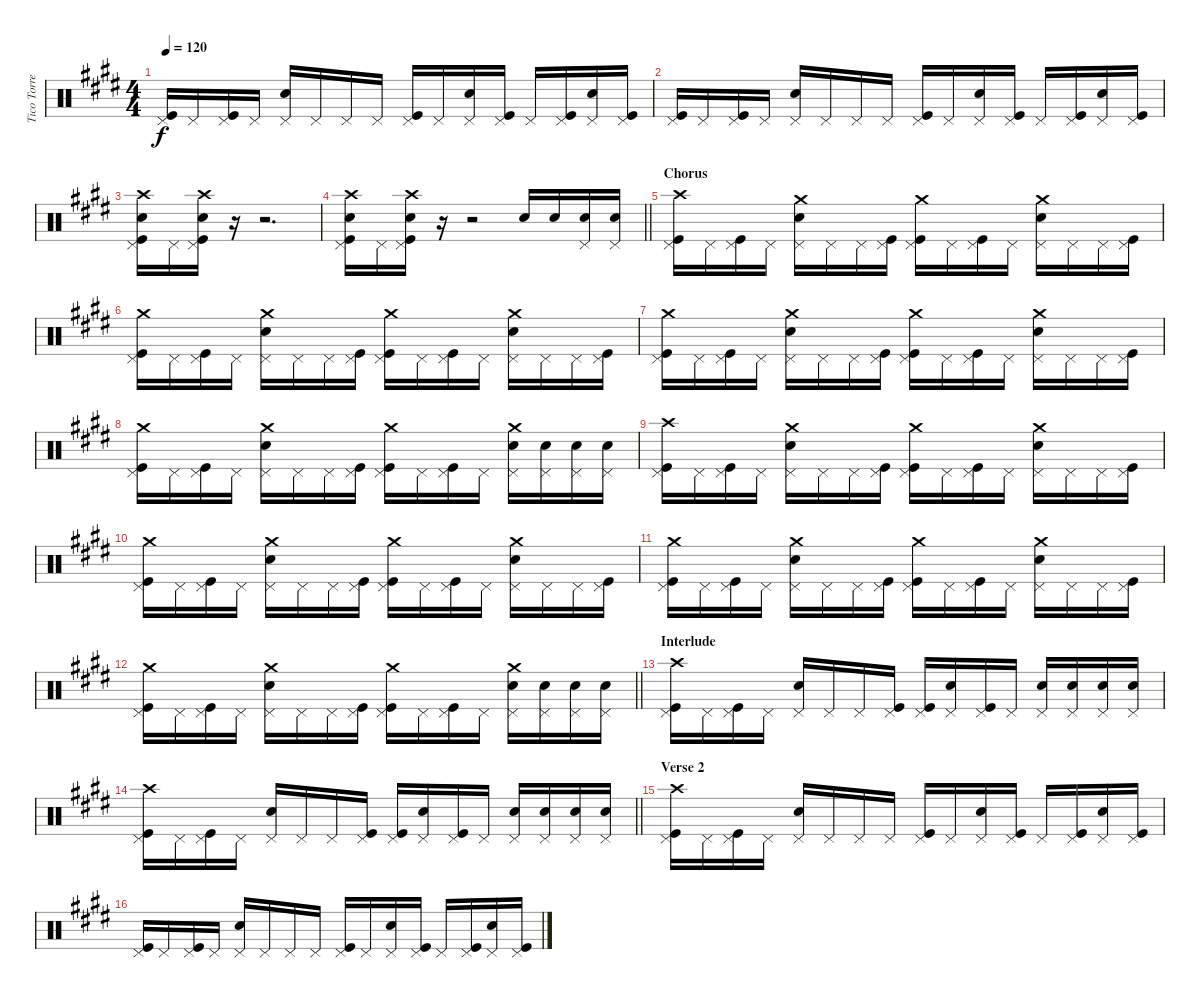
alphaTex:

\track ("Tico Torres (Drums)" "Tico Torre") {instrument percussion}
\staff {score}
\articulation defaults
\ts (4 4)
\tempo 120
\clef neutral
\ks c#minor
("Pedal Hi-Hat (hit)" "Kick (hit)").16{dy f} "Pedal Hi-Hat (hit)".16 ("Pedal Hi-Hat (hit)" "Kick (hit)").16 "Pedal Hi-Hat (hit)".16 ("Electric Snare (hit)" "Pedal Hi-Hat (hit)").16 "Pedal Hi-Hat (hit)".16 "Pedal Hi-Hat (hit)".16 "Pedal Hi-Hat (hit)".16 ("Pedal Hi-Hat (hit)" "Kick (hit)").16 "Pedal Hi-Hat (hit)".16 ("Electric Snare (hit)" "Pedal Hi-Hat (hit)").16 ("Pedal Hi-Hat (hit)" "Kick (hit)").16 "Pedal Hi-Hat (hit)".16 ("Pedal Hi-Hat (hit)" "Kick (hit)").16 ("Electric Snare (hit)" "Pedal Hi-Hat (hit)").16 ("Pedal Hi-Hat (hit)" "Kick (hit)").16 |
("Pedal Hi-Hat (hit)" "Kick (hit)").16 "Pedal Hi-Hat (hit)".16 ("Pedal Hi-Hat (hit)" "Kick (hit)").16 "Pedal Hi-Hat (hit)".16 ("Electric Snare (hit)" "Pedal Hi-Hat (hit)").16 "Pedal Hi-Hat (hit)".16 "Pedal Hi-Hat (hit)".16 "Pedal Hi-Hat (hit)".16 ("Pedal Hi-Hat (hit)" "Kick (hit)").16 "Pedal Hi-Hat (hit)".16 ("Electric Snare (hit)" "Pedal Hi-Hat (hit)").16 ("Pedal Hi-Hat (hit)" "Kick (hit)").16 "Pedal Hi-Hat (hit)".16 ("Pedal Hi-Hat (hit)" "Kick (hit)").16 ("Electric Snare (hit)" "Pedal Hi-Hat (hit)").16 ("Pedal Hi-Hat (hit)" "Kick (hit)").16 |
("Crash high (hit)" "Electric Snare (hit)" "Pedal Hi-Hat (hit)" "Kick (hit)").16 "Pedal Hi-Hat (hit)".16 ("Crash high (hit)" "Electric Snare (hit)" "Pedal Hi-Hat (hit)" "Kick (hit)").16 r.16 r.2{d} |
\barLineRight lightlight
("Crash high (hit)" "Electric Snare (hit)" "Pedal Hi-Hat (hit)" "Kick (hit)").16 "Pedal Hi-Hat (hit)".16 ("Crash high (hit)" "Electric Snare (hit)" "Pedal Hi-Hat (hit)" "Kick (hit)").16 r.16 r.2 "Electric Snare (hit)".16 "Electric Snare (hit)".16 ("Electric Snare (hit)" "Pedal Hi-Hat (hit)").16 ("Electric Snare (hit)" "Pedal Hi-Hat (hit)").16 |
\section ("" "Chorus")
("Crash high (hit)" "Pedal Hi-Hat (hit)" "Kick (hit)").16 "Pedal Hi-Hat (hit)".16 ("Pedal Hi-Hat (hit)" "Kick (hit)").16 "Pedal Hi-Hat (hit)".16 ("Crash medium (hit)" "Electric Snare (hit)" "Pedal Hi-Hat (hit)").16 "Pedal Hi-Hat (hit)".16 "Pedal Hi-Hat (hit)".16 ("Pedal Hi-Hat (hit)" "Kick (hit)").16 ("Crash medium (hit)" "Pedal Hi-Hat (hit)" "Kick (hit)").16 "Pedal Hi-Hat (hit)".16 ("Pedal Hi-Hat (hit)" "Kick (hit)").16 "Pedal Hi-Hat (hit)".16 ("Crash medium (hit)" "Electric Snare (hit)" "Pedal Hi-Hat (hit)").16 "Pedal Hi-Hat (hit)".16 "Pedal Hi-Hat (hit)".16 ("Pedal Hi-Hat (hit)" "Kick (hit)").16 |
("Crash medium (hit)" "Pedal Hi-Hat (hit)" "Kick (hit)").16 "Pedal Hi-Hat (hit)".16 ("Pedal Hi-Hat (hit)" "Kick (hit)").16 "Pedal Hi-Hat (hit)".16 ("Crash medium (hit)" "Electric Snare (hit)" "Pedal Hi-Hat (hit)").16 "Pedal Hi-Hat (hit)".16 "Pedal Hi-Hat (hit)".16 ("Pedal Hi-Hat (hit)" "Kick (hit)").16 ("Crash medium (hit)" "Pedal Hi-Hat (hit)" "Kick (hit)").16 "Pedal Hi-Hat (hit)".16 ("Pedal Hi-Hat (hit)" "Kick (hit)").16 "Pedal Hi-Hat (hit)".16 ("Crash medium (hit)" "Electric Snare (hit)" "Pedal Hi-Hat (hit)").16 "Pedal Hi-Hat (hit)".16 "Pedal Hi-Hat (hit)".16 ("Pedal Hi-Hat (hit)" "Kick (hit)").16 |
("Crash medium (hit)" "Pedal Hi-Hat (hit)" "Kick (hit)").16 "Pedal Hi-Hat (hit)".16 ("Pedal Hi-Hat (hit)" "Kick (hit)").16 "Pedal Hi-Hat (hit)".16 ("Crash medium (hit)" "Electric Snare (hit)" "Pedal Hi-Hat (hit)").16 "Pedal Hi-Hat (hit)".16 "Pedal Hi-Hat (hit)".16 ("Pedal Hi-Hat (hit)" "Kick (hit)").16 ("Crash medium (hit)" "Pedal Hi-Hat (hit)" "Kick (hit)").16 "Pedal Hi-Hat (hit)".16 ("Pedal Hi-Hat (hit)" "Kick (hit)").16 "Pedal Hi-Hat (hit)".16 ("Crash medium (hit)" "Electric Snare (hit)" "Pedal Hi-Hat (hit)").16 "Pedal Hi-Hat (hit)".16 "Pedal Hi-Hat (hit)".16 ("Pedal Hi-Hat (hit)" "Kick (hit)").16 |
("Crash medium (hit)" "Pedal Hi-Hat (hit)" "Kick (hit)").16 "Pedal Hi-Hat (hit)".16 ("Pedal Hi-Hat (hit)" "Kick (hit)").16 "Pedal Hi-Hat (hit)".16 ("Crash medium (hit)" "Electric Snare (hit)" "Pedal Hi-Hat (hit)").16 "Pedal Hi-Hat (hit)".16 "Pedal Hi-Hat (hit)".16 ("Pedal Hi-Hat (hit)" "Kick (hit)").16 ("Crash medium (hit)" "Pedal Hi-Hat (hit)" "Kick (hit)").16 "Pedal Hi-Hat (hit)".16 ("Pedal Hi-Hat (hit)" "Kick (hit)").16 "Pedal Hi-Hat (hit)".16 ("Crash medium (hit)" "Electric Snare (hit)" "Pedal Hi-Hat (hit)").16 ("Electric Snare (hit)" "Pedal Hi-Hat (hit)").16 ("Electric Snare (hit)" "Pedal Hi-Hat (hit)").16 ("Electric Snare (hit)" "Pedal Hi-Hat (hit)").16 |
("Crash high (hit)" "Pedal Hi-Hat (hit)" "Kick (hit)").16 "Pedal Hi-Hat (hit)".16 ("Pedal Hi-Hat (hit)" "Kick (hit)").16 "Pedal Hi-Hat (hit)".16 ("Crash medium (hit)" "Electric Snare (hit)" "Pedal Hi-Hat (hit)").16 "Pedal Hi-Hat (hit)".16 "Pedal Hi-Hat (hit)".16 ("Pedal Hi-Hat (hit)" "Kick (hit)").16 ("Crash medium (hit)" "Pedal Hi-Hat (hit)" "Kick (hit)").16 "Pedal Hi-Hat (hit)".16 ("Pedal Hi-Hat (hit)" "Kick (hit)").16 "Pedal Hi-Hat (hit)".16 ("Crash medium (hit)" "Electric Snare (hit)" "Pedal Hi-Hat (hit)").16 "Pedal Hi-Hat (hit)".16 "Pedal Hi-Hat (hit)".16 ("Pedal Hi-Hat (hit)" "Kick (hit)").16 |
("Crash medium (hit)" "Pedal Hi-Hat (hit)" "Kick (hit)").16 "Pedal Hi-Hat (hit)".16 ("Pedal Hi-Hat (hit)" "Kick (hit)").16 "Pedal Hi-Hat (hit)".16 ("Crash medium (hit)" "Electric Snare (hit)" "Pedal Hi-Hat (hit)").16 "Pedal Hi-Hat (hit)".16 "Pedal Hi-Hat (hit)".16 ("Pedal Hi-Hat (hit)" "Kick (hit)").16 ("Crash medium (hit)" "Pedal Hi-Hat (hit)" "Kick (hit)").16 "Pedal Hi-Hat (hit)".16 ("Pedal Hi-Hat (hit)" "Kick (hit)").16 "Pedal Hi-Hat (hit)".16 ("Crash medium (hit)" "Electric Snare (hit)" "Pedal Hi-Hat (hit)").16 "Pedal Hi-Hat (hit)".16 "Pedal Hi-Hat (hit)".16 ("Pedal Hi-Hat (hit)" "Kick (hit)").16 |
("Crash medium (hit)" "Pedal Hi-Hat (hit)" "Kick (hit)").16 "Pedal Hi-Hat (hit)".16 ("Pedal Hi-Hat (hit)" "Kick (hit)").16 "Pedal Hi-Hat (hit)".16 ("Crash medium (hit)" "Electric Snare (hit)" "Pedal Hi-Hat (hit)").16 "Pedal Hi-Hat (hit)".16 "Pedal Hi-Hat (hit)".16 ("Pedal Hi-Hat (hit)" "Kick (hit)").16 ("Crash medium (hit)" "Pedal Hi-Hat (hit)" "Kick (hit)").16 "Pedal Hi-Hat (hit)".16 ("Pedal Hi-Hat (hit)" "Kick (hit)").16 "Pedal Hi-Hat (hit)".16 ("Crash medium (hit)" "Electric Snare (hit)" "Pedal Hi-Hat (hit)").16 "Pedal Hi-Hat (hit)".16 "Pedal Hi-Hat (hit)".16 ("Pedal Hi-Hat (hit)" "Kick (hit)").16 |
\barLineRight lightlight
("Crash medium (hit)" "Pedal Hi-Hat (hit)" "Kick (hit)").16 "Pedal Hi-Hat (hit)".16 ("Pedal Hi-Hat (hit)" "Kick (hit)").16 "Pedal Hi-Hat (hit)".16 ("Crash medium (hit)" "Electric Snare (hit)" "Pedal Hi-Hat (hit)").16 "Pedal Hi-Hat (hit)".16 "Pedal Hi-Hat (hit)".16 ("Pedal Hi-Hat (hit)" "Kick (hit)").16 ("Crash medium (hit)" "Pedal Hi-Hat (hit)" "Kick (hit)").16 "Pedal Hi-Hat (hit)".16 ("Pedal Hi-Hat (hit)" "Kick (hit)").16 "Pedal Hi-Hat (hit)".16 ("Crash medium (hit)" "Electric Snare (hit)" "Pedal Hi-Hat (hit)").16 ("Electric Snare (hit)" "Pedal Hi-Hat (hit)").16 ("Electric Snare (hit)" "Pedal Hi-Hat (hit)").16 ("Electric Snare (hit)" "Pedal Hi-Hat (hit)").16 |
\section ("" "Interlude")
("Crash high (hit)" "Pedal Hi-Hat (hit)" "Kick (hit)").16 "Pedal Hi-Hat (hit)".16 ("Pedal Hi-Hat (hit)" "Kick (hit)").16 "Pedal Hi-Hat (hit)".16 ("Electric Snare (hit)" "Pedal Hi-Hat (hit)").16 "Pedal Hi-Hat (hit)".16 "Pedal Hi-Hat (hit)".16 ("Pedal Hi-Hat (hit)" "Kick (hit)").16 ("Pedal Hi-Hat (hit)" "Kick (hit)").16 ("Electric Snare (hit)" "Pedal Hi-Hat (hit)").16 ("Pedal Hi-Hat (hit)" "Kick (hit)").16 "Pedal Hi-Hat (hit)".16 ("Electric Snare (hit)" "Pedal Hi-Hat (hit)").16 ("Electric Snare (hit)" "Pedal Hi-Hat (hit)").16 ("Electric Snare (hit)" "Pedal Hi-Hat (hit)").16 ("Electric Snare (hit)" "Pedal Hi-Hat (hit)").16 |
\barLineRight lightlight
("Crash high (hit)" "Pedal Hi-Hat (hit)" "Kick (hit)").16 "Pedal Hi-Hat (hit)".16 ("Pedal Hi-Hat (hit)" "Kick (hit)").16 "Pedal Hi-Hat (hit)".16 ("Electric Snare (hit)" "Pedal Hi-Hat (hit)").16 "Pedal Hi-Hat (hit)".16 "Pedal Hi-Hat (hit)".16 ("Pedal Hi-Hat (hit)" "Kick (hit)").16 ("Pedal Hi-Hat (hit)" "Kick (hit)").16 ("Electric Snare (hit)" "Pedal Hi-Hat (hit)").16 ("Pedal Hi-Hat (hit)" "Kick (hit)").16 "Pedal Hi-Hat (hit)".16 ("Electric Snare (hit)" "Pedal Hi-Hat (hit)").16 ("Electric Snare (hit)" "Pedal Hi-Hat (hit)").16 ("Electric Snare (hit)" "Pedal Hi-Hat (hit)").16 ("Electric Snare (hit)" "Pedal Hi-Hat (hit)").16 |
\section ("" "Verse 2")
("Crash high (hit)" "Pedal Hi-Hat (hit)" "Kick (hit)").16 "Pedal Hi-Hat (hit)".16 ("Pedal Hi-Hat (hit)" "Kick (hit)").16 "Pedal Hi-Hat (hit)".16 ("Electric Snare (hit)" "Pedal Hi-Hat (hit)").16 "Pedal Hi-Hat (hit)".16 "Pedal Hi-Hat (hit)".16 "Pedal Hi-Hat (hit)".16 ("Pedal Hi-Hat (hit)" "Kick (hit)").16 "Pedal Hi-Hat (hit)".16 ("Electric Snare (hit)" "Pedal Hi-Hat (hit)").16 ("Pedal Hi-Hat (hit)" "Kick (hit)").16 "Pedal Hi-Hat (hit)".16 ("Pedal Hi-Hat (hit)" "Kick (hit)").16 ("Electric Snare (hit)" "Pedal Hi-Hat (hit)").16 ("Pedal Hi-Hat (hit)" "Kick (hit)").16 |
("Pedal Hi-Hat (hit)" "Kick (hit)").16 "Pedal Hi-Hat (hit)".16 ("Pedal Hi-Hat (hit)" "Kick (hit)").16 "Pedal Hi-Hat (hit)".16 ("Electric Snare (hit)" "Pedal Hi-Hat (hit)").16 "Pedal Hi-Hat (hit)".16 "Pedal Hi-Hat (hit)".16 "Pedal Hi-Hat (hit)".16 ("Pedal Hi-Hat (hit)" "Kick (hit)").16 "Pedal Hi-Hat (hit)".16 ("Electric Snare (hit)" "Pedal Hi-Hat (hit)").16 ("Pedal Hi-Hat (hit)" "Kick (hit)").16 "Pedal Hi-Hat (hit)".16 ("Pedal Hi-Hat (hit)" "Kick (hit)").16 ("Electric Snare (hit)" "Pedal Hi-Hat (hit)").16 ("Pedal Hi-Hat (hit)" "Kick (hit)").16
